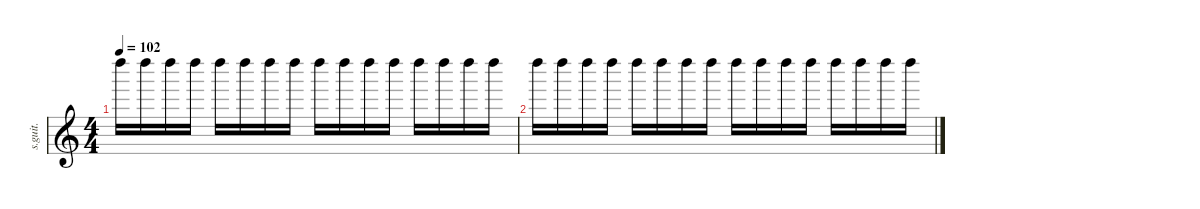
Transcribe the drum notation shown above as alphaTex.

\defaultSystemsLayout 4
\hideDynamics
\bracketExtendMode nobrackets
\track ("Drum Effects" "s.guit.") {instrument percussion}
\staff {score}
\articulation defaults
\ts (4 4)
\tempo 102
\clef g2
\ks c "Left Maraca (hit)".16{dy p} "Left Maraca (hit)".16{dy pp} "Left Maraca (hit)".16 "Left Maraca (hit)".16 "Left Maraca (hit)".16{dy p} "Left Maraca (hit)".16{dy pp} "Left Maraca (hit)".16 "Left Maraca (hit)".16 "Left Maraca (hit)".16{dy p} "Left Maraca (hit)".16{dy pp} "Left Maraca (hit)".16 "Left Maraca (hit)".16 "Left Maraca (hit)".16{dy p} "Left Maraca (hit)".16{dy pp} "Left Maraca (hit)".16 "Left Maraca (hit)".16
|
"Left Maraca (hit)".16{dy p} "Left Maraca (hit)".16{dy pp} "Left Maraca (hit)".16 "Left Maraca (hit)".16 "Left Maraca (hit)".16{dy p} "Left Maraca (hit)".16{dy pp} "Left Maraca (hit)".16 "Left Maraca (hit)".16 "Left Maraca (hit)".16{dy p} "Left Maraca (hit)".16{dy pp} "Left Maraca (hit)".16 "Left Maraca (hit)".16 "Left Maraca (hit)".16{dy p} "Left Maraca (hit)".16{dy pp} "Left Maraca (hit)".16 "Left Maraca (hit)".16
